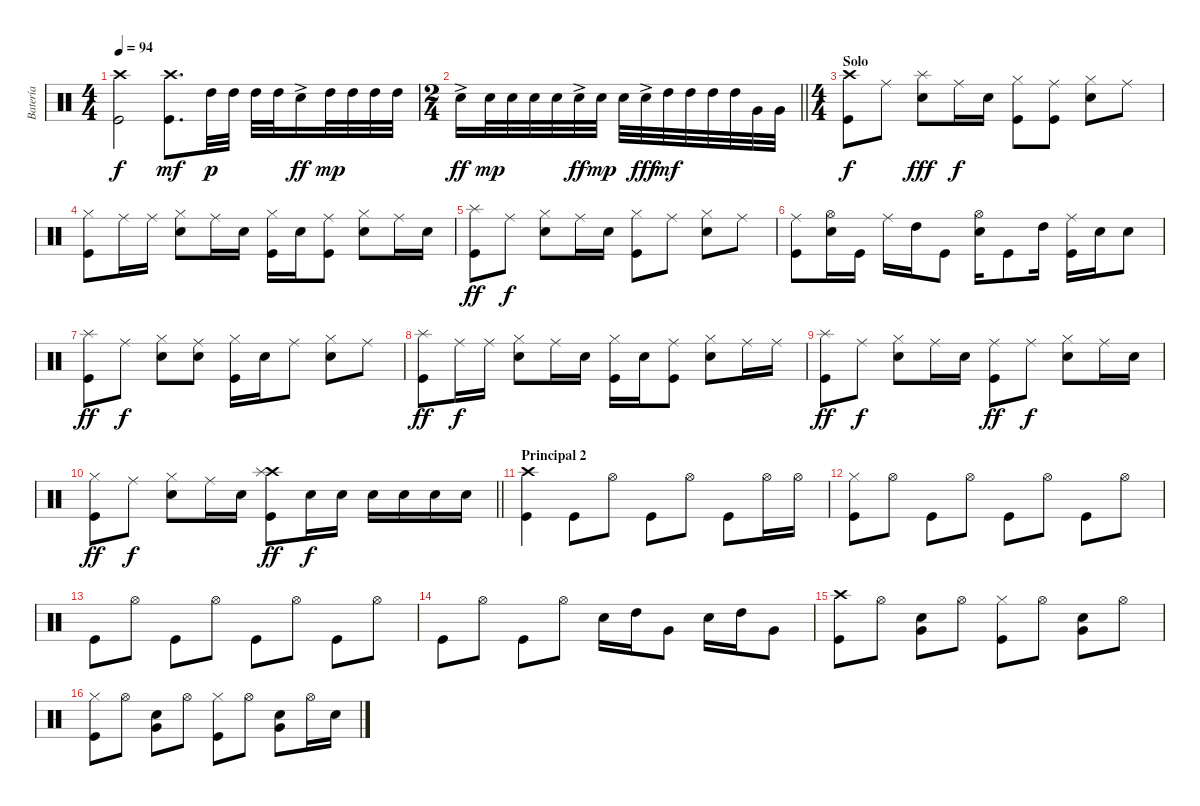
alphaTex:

\track ("Batería" "Batería") {instrument percussion}
\staff {score}
\articulation defaults
\ts (4 4)
\tempo 94
\clef neutral
\ks c
("Crash high (hit)" "Kick (hit)").2{dy f} ("Crash high (hit)" "Kick (hit)").8{d dy mf} "High Tom (hit)".32{dy p} "High Tom (hit)".32 "High Tom (hit)".32 "High Tom (hit)".32 "Snare (hit) 2"{ac}.16{dy ff} "High Tom (hit)".32{dy mp} "High Tom (hit)".32 "High Tom (hit)".32 "High Tom (hit)".32 |
\ts (2 4)
\barLineRight lightlight "Snare (hit) 2"{ac}.16{dy ff} "Snare (hit) 2".32{dy mp} "Snare (hit) 2".32 "Snare (hit) 2".32 "Snare (hit) 2".32 "Snare (hit) 2"{ac}.32{dy ff} "Snare (hit) 2".32{dy mp} "Snare (hit) 2".32 "Snare (hit) 2"{ac}.32{dy fff} "High Tom (hit)".32{dy mf} "High Tom (hit)".32 "High Tom (hit)".32 "High Tom (hit)".32 "Very Low Tom (hit)".32 "Very Low Tom (hit)".32
|
\ts (4 4)
\section ("" "Solo")
("Crash high (hit)" "Kick (hit)").8{dy f} "Ride (middle)".8 ("Splash (hit)" "Snare (hit) 2").8{dy fff} "Ride (middle)".16{dy f} "Snare (hit) 2".16 ("Hi-Hat (closed)" "Kick (hit)").8 ("Ride (middle)" "Kick (hit)").8 ("Hi-Hat (closed)" "Snare (hit) 2").8 "Ride (middle)".8 |
("Hi-Hat (closed)" "Kick (hit)").8 "Ride (middle)".16 "Ride (middle)".16 ("Hi-Hat (closed)" "Snare (hit) 2").8 "Ride (middle)".16 "Snare (hit) 2".16 ("Hi-Hat (closed)" "Kick (hit)").16 "Snare (hit) 2".16 ("Ride (middle)" "Kick (hit)").8 ("Hi-Hat (closed)" "Snare (hit) 2").8 "Ride (middle)".16 "Snare (hit) 2".16 |
("Splash (hit)" "Kick (hit)").8{dy ff} "Ride (middle)".8{dy f} ("Hi-Hat (closed)" "Snare (hit) 2").8 "Ride (middle)".16 "Snare (hit) 2".16 ("Hi-Hat (closed)" "Kick (hit)").8 "Ride (middle)".8 ("Hi-Hat (closed)" "Snare (hit) 2").8 "Ride (middle)".8 |
("Ride (middle)" "Kick (hit)").8 ("Hi-Hat (open)" "Snare (hit) 2").16 "Kick (hit)".16 "Ride (middle)".16 "High Tom (hit)".16 "Kick (hit)".8 ("Hi-Hat (open)" "Snare (hit) 2").16 "Kick (hit)".8 "High Tom (hit)".16 ("Ride (middle)" "Kick (hit)").16 "Snare (hit) 2".16 "Snare (hit) 2".8 |
("Splash (hit)" "Kick (hit)").8{dy ff} "Ride (middle)".8{dy f} ("Hi-Hat (closed)" "Snare (hit) 2").8 ("Ride (middle)" "Snare (hit) 2").8 ("Hi-Hat (closed)" "Kick (hit)").16 "Snare (hit) 2".16 "Ride (middle)".8 ("Hi-Hat (closed)" "Snare (hit) 2").8 "Ride (middle)".8 |
("Splash (hit)" "Kick (hit)").8{dy ff} "Ride (middle)".16{dy f} "Ride (middle)".16 ("Hi-Hat (closed)" "Snare (hit) 2").8 "Ride (middle)".16 "Snare (hit) 2".16 ("Hi-Hat (closed)" "Kick (hit)").16 "Snare (hit) 2".16 ("Ride (middle)" "Kick (hit)").8 ("Hi-Hat (closed)" "Snare (hit) 2").8 "Ride (middle)".16 "Ride (middle)".16 |
("Splash (hit)" "Kick (hit)").8{dy ff} "Ride (middle)".8{dy f} ("Hi-Hat (closed)" "Snare (hit) 2").8 "Ride (middle)".16 "Snare (hit) 2".16 ("Ride (middle)" "Kick (hit)").8{dy ff} "Ride (middle)".8{dy f} ("Hi-Hat (closed)" "Snare (hit) 2").8 "Ride (middle)".16 "Snare (hit) 2".16 |
\barLineRight lightlight
("Hi-Hat (closed)" "Kick (hit)").8{dy ff} "Ride (middle)".8{dy f} ("Hi-Hat (closed)" "Snare (hit) 2").8 "Ride (middle)".16 "Snare (hit) 2".16 ("Crash high (hit)" "Splash (hit)" "Kick (hit)").8{dy ff} "Snare (hit) 2".16{dy f} "Snare (hit) 2".16 "Snare (hit) 2".16 "Snare (hit) 2".16 "Snare (hit) 2".16 "Snare (hit) 2".16 |
\section ("" "Principal 2")
("Crash high (hit)" "Kick (hit)").4 "Kick (hit)".8 "Hi-Hat (open)".8 "Kick (hit)".8 "Hi-Hat (open)".8 "Kick (hit)".8 "Hi-Hat (open)".16 "Hi-Hat (open)".16 |
("Hi-Hat (closed)" "Kick (hit)").8 "Hi-Hat (open)".8 "Kick (hit)".8 "Hi-Hat (open)".8 "Kick (hit)".8 "Hi-Hat (open)".8 "Kick (hit)".8 "Hi-Hat (open)".8 |
"Kick (hit)".8 "Hi-Hat (open)".8 "Kick (hit)".8 "Hi-Hat (open)".8 "Kick (hit)".8 "Hi-Hat (open)".8 "Kick (hit)".8 "Hi-Hat (open)".8 |
"Kick (hit)".8 "Hi-Hat (open)".8 "Kick (hit)".8 "Hi-Hat (open)".8 "Snare (hit) 2".16 "High Tom (hit)".16 "Very Low Tom (hit)".8 "Snare (hit) 2".16 "High Tom (hit)".16 "Very Low Tom (hit)".8 |
("Crash high (hit)" "Kick (hit)").8 "Hi-Hat (open)".8 ("Snare (hit) 2" "Very Low Tom (hit)").8 "Hi-Hat (open)".8 ("Hi-Hat (closed)" "Kick (hit)").8 "Hi-Hat (open)".8 ("Snare (hit) 2" "Very Low Tom (hit)").8 "Hi-Hat (open)".8 |
("Hi-Hat (closed)" "Kick (hit)").8 "Hi-Hat (open)".8 ("Snare (hit) 2" "Very Low Tom (hit)").8 "Hi-Hat (open)".8 ("Hi-Hat (closed)" "Kick (hit)").8 "Hi-Hat (open)".8 ("Snare (hit) 2" "Very Low Tom (hit)").8 "Hi-Hat (open)".16 "Snare (hit) 2".16
